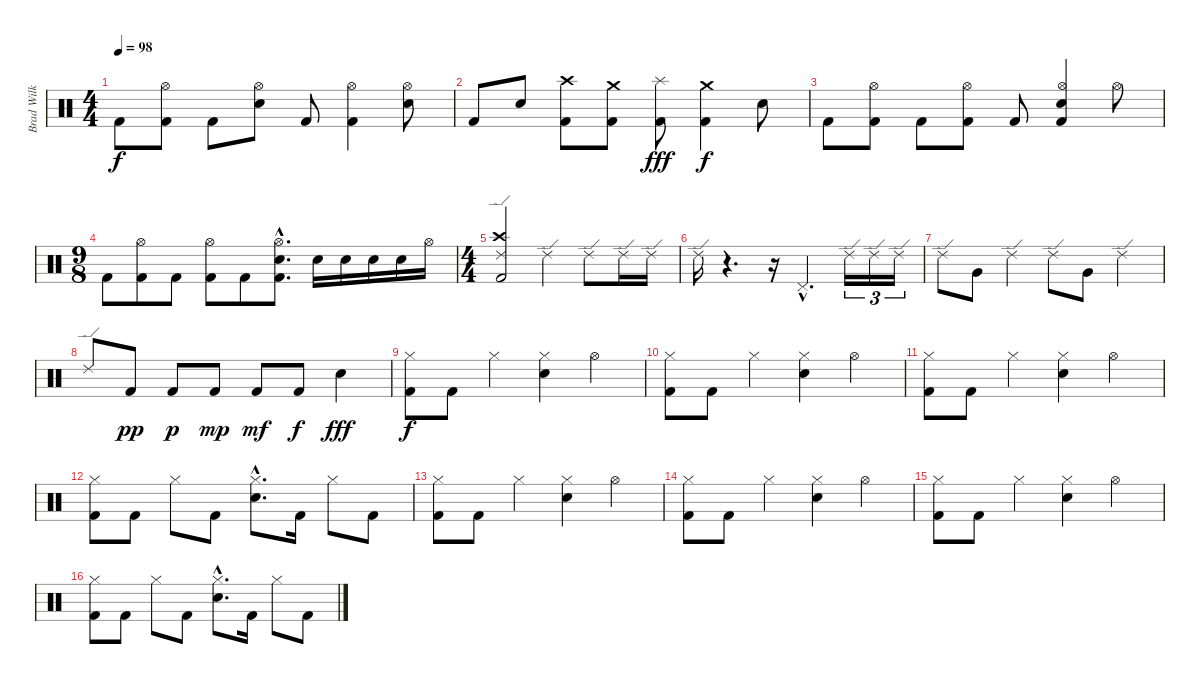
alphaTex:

\track ("Brad Wilk" "Brad Wilk") {instrument percussion}
\staff {score}
\articulation defaults
\ts (4 4)
\tempo 98
\clef neutral
\ks c "Kick (hit) 2".8{dy f}
("Hi-Hat (open)" "Kick (hit) 2").8 "Kick (hit) 2".8 ("Hi-Hat (open)" "Electric Snare (hit)").8 "Kick (hit) 2".8 ("Hi-Hat (open)" "Kick (hit) 2").4 ("Hi-Hat (open)" "Electric Snare (hit)").8 |
"Kick (hit) 2".8 "Electric Snare (hit)".8 ("Crash high (hit)" "Kick (hit) 2").8 ("Crash medium (hit)" "Kick (hit) 2").8 ("Splash (hit)" "Kick (hit) 2").8{dy fff} ("Crash medium (hit)" "Kick (hit) 2").4{dy f} "Electric Snare (hit)".8 |
"Kick (hit) 2".8 ("Hi-Hat (open)" "Kick (hit) 2").8 "Kick (hit) 2".8 ("Hi-Hat (open)" "Kick (hit) 2").8 "Kick (hit) 2".8 ("Hi-Hat (open)" "Electric Snare (hit)" "Kick (hit) 2").4 "Hi-Hat (open)".8 |
\ts (9 8)
"Kick (hit) 2".8 ("Hi-Hat (open)" "Kick (hit) 2").8 "Kick (hit) 2".8 ("Hi-Hat (open)" "Kick (hit) 2").8 "Kick (hit) 2".8 ("Hi-Hat (open)"{hac} "Electric Snare (hit)"{hac} "Kick (hit) 2"{hac}).8{d} "Electric Snare (hit)".16 "Electric Snare (hit)".16 "Electric Snare (hit)".16 "Electric Snare (hit)".16 "Hi-Hat (open)".16 |
\ts (4 4)
("Ride (edge) 2" "Crash high (hit)" "Kick (hit) 2").2 "Ride (edge) 2".4 "Ride (edge) 2".8 "Ride (edge) 2".16 "Ride (edge) 2".16 |
"Ride (edge) 2".16 r.4{d} r.16 "Pedal Hi-Hat (hit)"{hac}.4{d} "Ride (edge) 2".16{tu (3 2)} "Ride (edge) 2".16{tu (3 2)} "Ride (edge) 2".16{tu (3 2)} |
"Ride (edge) 2".8 "Very Low Tom (hit)".8 "Ride (edge) 2".4 "Ride (edge) 2".8 "Very Low Tom (hit)".8 "Ride (edge) 2".4 |
"Ride (edge) 2".8 "Kick (hit) 2".8{dy pp} "Kick (hit) 2".8{dy p} "Kick (hit) 2".8{dy mp} "Kick (hit) 2".8{dy mf} "Kick (hit) 2".8{dy f} "Electric Snare (hit)".4{dy fff} |
("Hi-Hat (closed)" "Kick (hit) 2").8{dy f} "Kick (hit) 2".8 "Hi-Hat (closed)".4 ("Hi-Hat (closed)" "Electric Snare (hit)").4 "Hi-Hat (open)".4 |
("Hi-Hat (closed)" "Kick (hit) 2").8 "Kick (hit) 2".8 "Hi-Hat (closed)".4 ("Hi-Hat (closed)" "Electric Snare (hit)").4 "Hi-Hat (open)".4 |
("Hi-Hat (closed)" "Kick (hit) 2").8 "Kick (hit) 2".8 "Hi-Hat (closed)".4 ("Hi-Hat (closed)" "Electric Snare (hit)").4 "Hi-Hat (open)".4 |
("Hi-Hat (closed)" "Kick (hit) 2").8 "Kick (hit) 2".8 "Hi-Hat (closed)".8 "Kick (hit) 2".8 ("Hi-Hat (closed)"{hac} "Electric Snare (hit)"{hac}).8{d} "Kick (hit) 2".16 "Hi-Hat (closed)".8 "Kick (hit) 2".8 |
("Hi-Hat (closed)" "Kick (hit) 2").8 "Kick (hit) 2".8 "Hi-Hat (closed)".4 ("Hi-Hat (closed)" "Electric Snare (hit)").4 "Hi-Hat (open)".4 |
("Hi-Hat (closed)" "Kick (hit) 2").8 "Kick (hit) 2".8 "Hi-Hat (closed)".4 ("Hi-Hat (closed)" "Electric Snare (hit)").4 "Hi-Hat (open)".4 |
("Hi-Hat (closed)" "Kick (hit) 2").8 "Kick (hit) 2".8 "Hi-Hat (closed)".4 ("Hi-Hat (closed)" "Electric Snare (hit)").4 "Hi-Hat (open)".4 |
("Hi-Hat (closed)" "Kick (hit) 2").8 "Kick (hit) 2".8 "Hi-Hat (closed)".8 "Kick (hit) 2".8 ("Hi-Hat (closed)"{hac} "Electric Snare (hit)"{hac}).8{d} "Kick (hit) 2".16 "Hi-Hat (closed)".8 "Kick (hit) 2".8
